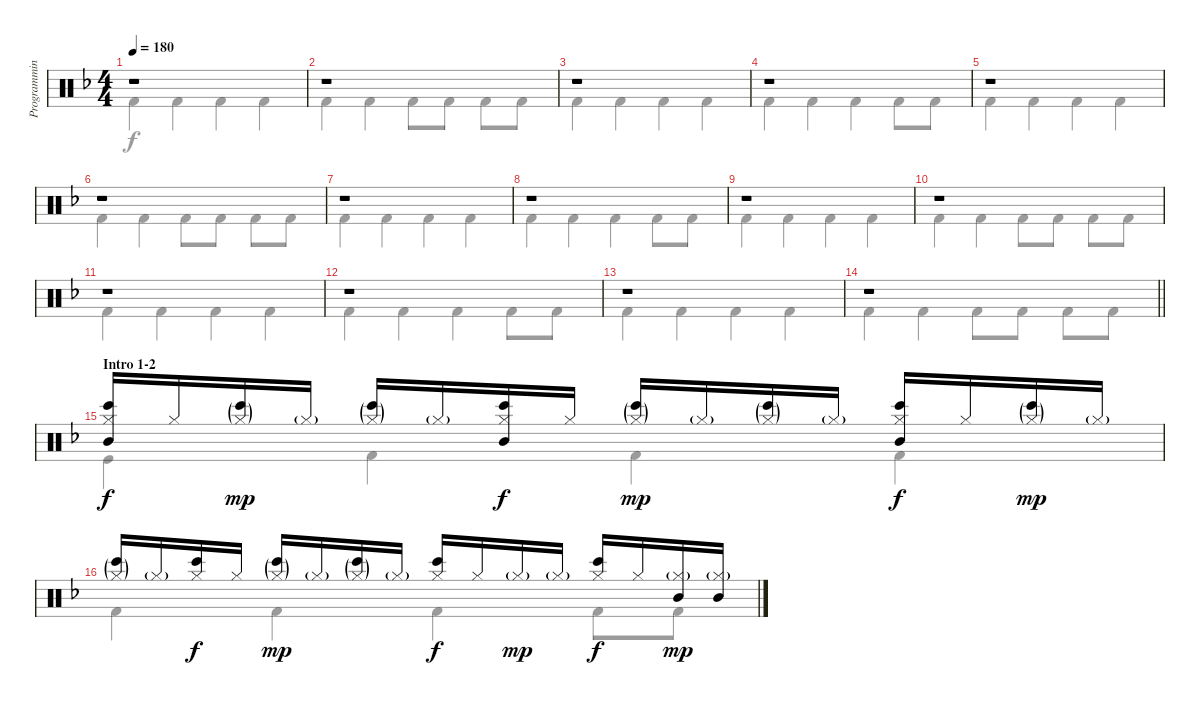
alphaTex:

\track ("Programming" "Programmin") {instrument percussion}
\staff {score}
\articulation defaults
\voice
\ts (4 4)
\tempo 180
\clef neutral
\ks f
r.1{dy mp} |
r.1 |
r.1 |
r.1 |
r.1 |
r.1 |
r.1 |
r.1 |
r.1 |
r.1 |
r.1 |
r.1 |
r.1 |
\barLineRight lightlight
r.1 |
\section ("" "Intro 1-2")
("Hi-Hat (closed)" "Bongo High (hit)" "Mid Tom (hit)").16{dy f} "Hi-Hat (closed)".16 ("Hi-Hat (closed)"{g} "Bongo High (hit)"{g}).16{dy mp} "Hi-Hat (closed)"{g}.16 ("Hi-Hat (closed)"{g} "Bongo High (hit)"{g}).16 "Hi-Hat (closed)"{g}.16 ("Hi-Hat (closed)" "Bongo High (hit)" "Mid Tom (hit)").16{dy f} "Hi-Hat (closed)".16 ("Hi-Hat (closed)"{g} "Bongo High (hit)"{g}).16{dy mp} "Hi-Hat (closed)"{g}.16 ("Hi-Hat (closed)"{g} "Bongo High (hit)"{g}).16 "Hi-Hat (closed)"{g}.16 ("Hi-Hat (closed)" "Bongo High (hit)" "Mid Tom (hit)").16{dy f} "Hi-Hat (closed)".16 ("Hi-Hat (closed)"{g} "Bongo High (hit)"{g}).16{dy mp} "Hi-Hat (closed)"{g}.16 |
("Hi-Hat (closed)"{g} "Bongo High (hit)"{g}).16 "Hi-Hat (closed)"{g}.16 ("Hi-Hat (closed)" "Bongo High (hit)").16{dy f} "Hi-Hat (closed)".16 ("Hi-Hat (closed)"{g} "Bongo High (hit)"{g}).16{dy mp} "Hi-Hat (closed)"{g}.16 ("Hi-Hat (closed)"{g} "Bongo High (hit)"{g}).16 "Hi-Hat (closed)"{g}.16 ("Hi-Hat (closed)" "Bongo High (hit)").16{dy f} "Hi-Hat (closed)".16 "Hi-Hat (closed)"{g}.16{dy mp} "Hi-Hat (closed)"{g}.16 ("Hi-Hat (closed)" "Bongo High (hit)").16{dy f} "Hi-Hat (closed)".16 ("Hi-Hat (closed)"{g} "Mid Tom (hit)").16{dy mp} ("Hi-Hat (closed)"{g} "Mid Tom (hit)").16
\voice
\clef neutral
\ottava regular
\simile none
\ks f "Kick (hit) 2".4{dy f} "Kick (hit) 2".4 "Kick (hit) 2".4 "Kick (hit) 2".4
|
"Kick (hit) 2".4 "Kick (hit) 2".4 "Kick (hit) 2".8 "Kick (hit) 2".8 "Kick (hit) 2".8 "Kick (hit) 2".8 |
"Kick (hit) 2".4 "Kick (hit) 2".4 "Kick (hit) 2".4 "Kick (hit) 2".4 |
"Kick (hit) 2".4 "Kick (hit) 2".4 "Kick (hit) 2".4 "Kick (hit) 2".8 "Kick (hit) 2".8 |
"Kick (hit) 2".4 "Kick (hit) 2".4 "Kick (hit) 2".4 "Kick (hit) 2".4 |
"Kick (hit) 2".4 "Kick (hit) 2".4 "Kick (hit) 2".8 "Kick (hit) 2".8 "Kick (hit) 2".8 "Kick (hit) 2".8 |
"Kick (hit) 2".4 "Kick (hit) 2".4 "Kick (hit) 2".4 "Kick (hit) 2".4 |
"Kick (hit) 2".4 "Kick (hit) 2".4 "Kick (hit) 2".4 "Kick (hit) 2".8 "Kick (hit) 2".8 |
"Kick (hit) 2".4 "Kick (hit) 2".4 "Kick (hit) 2".4 "Kick (hit) 2".4 |
"Kick (hit) 2".4 "Kick (hit) 2".4 "Kick (hit) 2".8 "Kick (hit) 2".8 "Kick (hit) 2".8 "Kick (hit) 2".8 |
"Kick (hit) 2".4 "Kick (hit) 2".4 "Kick (hit) 2".4 "Kick (hit) 2".4 |
"Kick (hit) 2".4 "Kick (hit) 2".4 "Kick (hit) 2".4 "Kick (hit) 2".8 "Kick (hit) 2".8 |
"Kick (hit) 2".4 "Kick (hit) 2".4 "Kick (hit) 2".4 "Kick (hit) 2".4 |
\barLineRight lightlight "Kick (hit) 2".4 "Kick (hit) 2".4 "Kick (hit) 2".8 "Kick (hit) 2".8 "Kick (hit) 2".8 "Kick (hit) 2".8
|
"Kick (hit)".4 "Kick (hit) 2".4 "Kick (hit) 2".4 "Kick (hit) 2".4 |
"Kick (hit) 2".4 "Kick (hit) 2".4 "Kick (hit) 2".4 "Kick (hit) 2".8 "Kick (hit) 2".8
